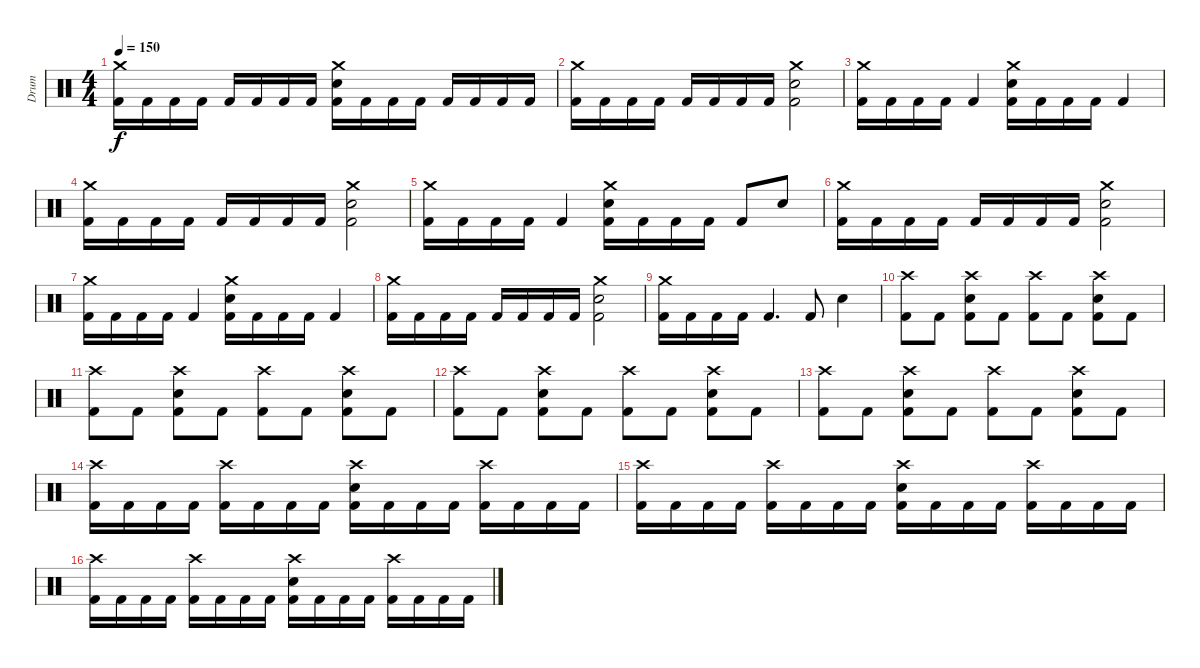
\track ("Drum" "Drum") {instrument percussion}
\staff {score}
\articulation defaults
\ts (4 4)
\tempo 150
\clef neutral
\ks c
("Crash medium (hit)" "Kick (hit) 2").16{dy f} "Kick (hit) 2".16 "Kick (hit) 2".16 "Kick (hit) 2".16 "Kick (hit) 2".16 "Kick (hit) 2".16 "Kick (hit) 2".16 "Kick (hit) 2".16 ("Crash medium (hit)" "Electric Snare (hit)" "Kick (hit) 2").16 "Kick (hit) 2".16 "Kick (hit) 2".16 "Kick (hit) 2".16 "Kick (hit) 2".16 "Kick (hit) 2".16 "Kick (hit) 2".16 "Kick (hit) 2".16 |
("Crash medium (hit)" "Kick (hit) 2").16 "Kick (hit) 2".16 "Kick (hit) 2".16 "Kick (hit) 2".16 "Kick (hit) 2".16 "Kick (hit) 2".16 "Kick (hit) 2".16 "Kick (hit) 2".16 ("Crash medium (hit)" "Electric Snare (hit)" "Kick (hit) 2").2 |
("Crash medium (hit)" "Kick (hit) 2").16 "Kick (hit) 2".16 "Kick (hit) 2".16 "Kick (hit) 2".16 "Kick (hit) 2".4 ("Crash medium (hit)" "Electric Snare (hit)" "Kick (hit) 2").16 "Kick (hit) 2".16 "Kick (hit) 2".16 "Kick (hit) 2".16 "Kick (hit) 2".4 |
("Crash medium (hit)" "Kick (hit) 2").16 "Kick (hit) 2".16 "Kick (hit) 2".16 "Kick (hit) 2".16 "Kick (hit) 2".16 "Kick (hit) 2".16 "Kick (hit) 2".16 "Kick (hit) 2".16 ("Crash medium (hit)" "Electric Snare (hit)" "Kick (hit) 2").2 |
("Crash medium (hit)" "Kick (hit) 2").16 "Kick (hit) 2".16 "Kick (hit) 2".16 "Kick (hit) 2".16 "Kick (hit) 2".4 ("Crash medium (hit)" "Electric Snare (hit)" "Kick (hit) 2").16 "Kick (hit) 2".16 "Kick (hit) 2".16 "Kick (hit) 2".16 "Kick (hit) 2".8 "Electric Snare (hit)".8 |
("Crash medium (hit)" "Kick (hit) 2").16 "Kick (hit) 2".16 "Kick (hit) 2".16 "Kick (hit) 2".16 "Kick (hit) 2".16 "Kick (hit) 2".16 "Kick (hit) 2".16 "Kick (hit) 2".16 ("Crash medium (hit)" "Electric Snare (hit)" "Kick (hit) 2").2 |
("Crash medium (hit)" "Kick (hit) 2").16 "Kick (hit) 2".16 "Kick (hit) 2".16 "Kick (hit) 2".16 "Kick (hit) 2".4 ("Crash medium (hit)" "Electric Snare (hit)" "Kick (hit) 2").16 "Kick (hit) 2".16 "Kick (hit) 2".16 "Kick (hit) 2".16 "Kick (hit) 2".4 |
("Crash medium (hit)" "Kick (hit) 2").16 "Kick (hit) 2".16 "Kick (hit) 2".16 "Kick (hit) 2".16 "Kick (hit) 2".16 "Kick (hit) 2".16 "Kick (hit) 2".16 "Kick (hit) 2".16 ("Crash medium (hit)" "Electric Snare (hit)" "Kick (hit) 2").2 |
("Crash medium (hit)" "Kick (hit) 2").16 "Kick (hit) 2".16 "Kick (hit) 2".16 "Kick (hit) 2".16 "Kick (hit) 2".4{d} "Kick (hit) 2".8 "Electric Snare (hit)".4 |
("Crash high (hit)" "Kick (hit) 2").8 "Kick (hit) 2".8 ("Crash high (hit)" "Electric Snare (hit)" "Kick (hit) 2").8 "Kick (hit) 2".8 ("Crash high (hit)" "Kick (hit) 2").8 "Kick (hit) 2".8 ("Crash high (hit)" "Electric Snare (hit)" "Kick (hit) 2").8 "Kick (hit) 2".8 |
("Crash high (hit)" "Kick (hit) 2").8 "Kick (hit) 2".8 ("Crash high (hit)" "Electric Snare (hit)" "Kick (hit) 2").8 "Kick (hit) 2".8 ("Crash high (hit)" "Kick (hit) 2").8 "Kick (hit) 2".8 ("Crash high (hit)" "Electric Snare (hit)" "Kick (hit) 2").8 "Kick (hit) 2".8 |
("Crash high (hit)" "Kick (hit) 2").8 "Kick (hit) 2".8 ("Crash high (hit)" "Electric Snare (hit)" "Kick (hit) 2").8 "Kick (hit) 2".8 ("Crash high (hit)" "Kick (hit) 2").8 "Kick (hit) 2".8 ("Crash high (hit)" "Electric Snare (hit)" "Kick (hit) 2").8 "Kick (hit) 2".8 |
("Crash high (hit)" "Kick (hit) 2").8 "Kick (hit) 2".8 ("Crash high (hit)" "Electric Snare (hit)" "Kick (hit) 2").8 "Kick (hit) 2".8 ("Crash high (hit)" "Kick (hit) 2").8 "Kick (hit) 2".8 ("Crash high (hit)" "Electric Snare (hit)" "Kick (hit) 2").8 "Kick (hit) 2".8 |
("Crash high (hit)" "Kick (hit) 2").16 "Kick (hit) 2".16 "Kick (hit) 2".16 "Kick (hit) 2".16 ("Crash high (hit)" "Kick (hit) 2").16 "Kick (hit) 2".16 "Kick (hit) 2".16 "Kick (hit) 2".16 ("Crash high (hit)" "Electric Snare (hit)" "Kick (hit) 2").16 "Kick (hit) 2".16 "Kick (hit) 2".16 "Kick (hit) 2".16 ("Crash high (hit)" "Kick (hit) 2").16 "Kick (hit) 2".16 "Kick (hit) 2".16 "Kick (hit) 2".16 |
("Crash high (hit)" "Kick (hit) 2").16 "Kick (hit) 2".16 "Kick (hit) 2".16 "Kick (hit) 2".16 ("Crash high (hit)" "Kick (hit) 2").16 "Kick (hit) 2".16 "Kick (hit) 2".16 "Kick (hit) 2".16 ("Crash high (hit)" "Electric Snare (hit)" "Kick (hit) 2").16 "Kick (hit) 2".16 "Kick (hit) 2".16 "Kick (hit) 2".16 ("Crash high (hit)" "Kick (hit) 2").16 "Kick (hit) 2".16 "Kick (hit) 2".16 "Kick (hit) 2".16 |
("Crash high (hit)" "Kick (hit) 2").16 "Kick (hit) 2".16 "Kick (hit) 2".16 "Kick (hit) 2".16 ("Crash high (hit)" "Kick (hit) 2").16 "Kick (hit) 2".16 "Kick (hit) 2".16 "Kick (hit) 2".16 ("Crash high (hit)" "Electric Snare (hit)" "Kick (hit) 2").16 "Kick (hit) 2".16 "Kick (hit) 2".16 "Kick (hit) 2".16 ("Crash high (hit)" "Kick (hit) 2").16 "Kick (hit) 2".16 "Kick (hit) 2".16 "Kick (hit) 2".16
